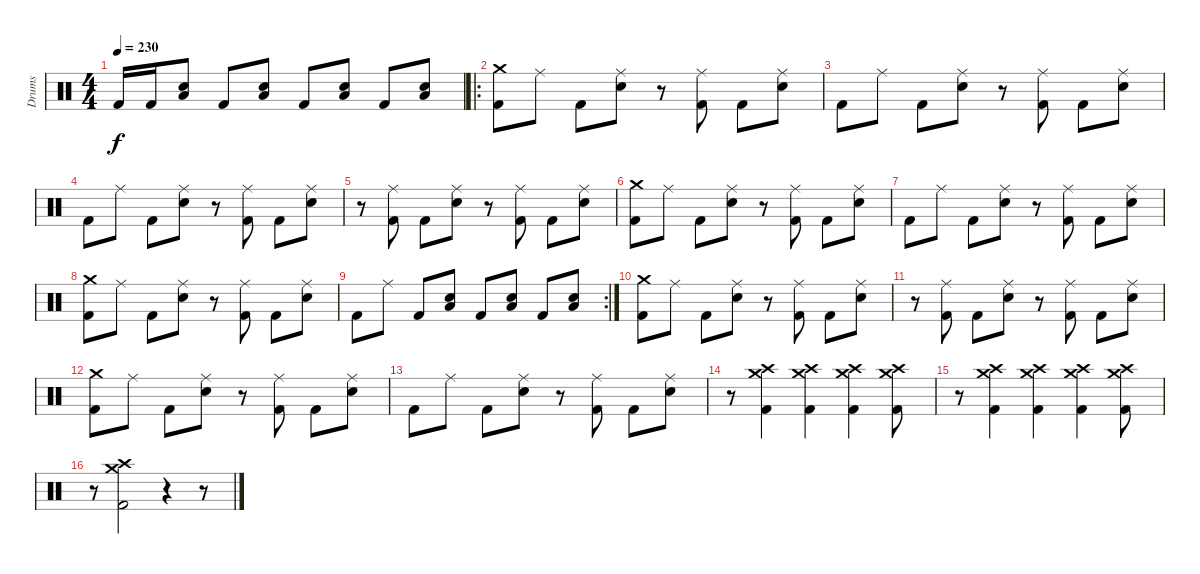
\track ("Drums" "Drums") {instrument percussion}
\staff {score}
\articulation defaults
\ts (4 4)
\tempo 230
\clef neutral
\ks c "Kick (hit) 2".16{dy f} "Kick (hit) 2".16
("Electric Snare (hit)" "Low Tom (hit)").8 "Kick (hit) 2".8 ("Electric Snare (hit)" "Low Tom (hit)").8 "Kick (hit) 2".8 ("Electric Snare (hit)" "Low Tom (hit)").8 "Kick (hit) 2".8 ("Electric Snare (hit)" "Low Tom (hit)").8 |
\ro
("Kick (hit) 2" "Crash medium (hit)").8 "Ride (middle)".8 "Kick (hit) 2".8 ("Electric Snare (hit)" "Ride (middle)").8 r.8 ("Kick (hit) 2" "Ride (middle)").8 "Kick (hit) 2".8 ("Electric Snare (hit)" "Ride (middle)").8 |
"Kick (hit) 2".8 "Ride (middle)".8 "Kick (hit) 2".8 ("Electric Snare (hit)" "Ride (middle)").8 r.8 ("Kick (hit) 2" "Ride (middle)").8 "Kick (hit) 2".8 ("Electric Snare (hit)" "Ride (middle)").8 |
"Kick (hit) 2".8 "Ride (middle)".8 "Kick (hit) 2".8 ("Electric Snare (hit)" "Ride (middle)").8 r.8 ("Kick (hit) 2" "Ride (middle)").8 "Kick (hit) 2".8 ("Electric Snare (hit)" "Ride (middle)").8 |
r.8 ("Kick (hit) 2" "Ride (middle)").8 "Kick (hit) 2".8 ("Electric Snare (hit)" "Ride (middle)").8 r.8 ("Kick (hit) 2" "Ride (middle)").8 "Kick (hit) 2".8 ("Electric Snare (hit)" "Ride (middle)").8 |
("Kick (hit) 2" "Crash medium (hit)").8 "Ride (middle)".8 "Kick (hit) 2".8 ("Electric Snare (hit)" "Ride (middle)").8 r.8 ("Kick (hit) 2" "Ride (middle)").8 "Kick (hit) 2".8 ("Electric Snare (hit)" "Ride (middle)").8 |
"Kick (hit) 2".8 "Ride (middle)".8 "Kick (hit) 2".8 ("Electric Snare (hit)" "Ride (middle)").8 r.8 ("Kick (hit) 2" "Ride (middle)").8 "Kick (hit) 2".8 ("Electric Snare (hit)" "Ride (middle)").8 |
("Kick (hit) 2" "Crash medium (hit)").8 "Ride (middle)".8 "Kick (hit) 2".8 ("Electric Snare (hit)" "Ride (middle)").8 r.8 ("Kick (hit) 2" "Ride (middle)").8 "Kick (hit) 2".8 ("Electric Snare (hit)" "Ride (middle)").8 |
\rc 2 "Kick (hit) 2".8 "Ride (middle)".8 "Kick (hit) 2".8
("Electric Snare (hit)" "Low Tom (hit)").8 "Kick (hit) 2".8 ("Electric Snare (hit)" "Low Tom (hit)").8 "Kick (hit) 2".8 ("Electric Snare (hit)" "Low Tom (hit)").8 |
("Kick (hit) 2" "Crash medium (hit)").8 "Ride (middle)".8 "Kick (hit) 2".8 ("Electric Snare (hit)" "Ride (middle)").8 r.8 ("Kick (hit) 2" "Ride (middle)").8 "Kick (hit) 2".8 ("Electric Snare (hit)" "Ride (middle)").8 |
r.8 ("Kick (hit) 2" "Ride (middle)").8 "Kick (hit) 2".8 ("Electric Snare (hit)" "Ride (middle)").8 r.8 ("Kick (hit) 2" "Ride (middle)").8 "Kick (hit) 2".8 ("Electric Snare (hit)" "Ride (middle)").8 |
("Kick (hit) 2" "Crash medium (hit)").8 "Ride (middle)".8 "Kick (hit) 2".8 ("Electric Snare (hit)" "Ride (middle)").8 r.8 ("Kick (hit) 2" "Ride (middle)").8 "Kick (hit) 2".8 ("Electric Snare (hit)" "Ride (middle)").8 |
"Kick (hit) 2".8 "Ride (middle)".8 "Kick (hit) 2".8 ("Electric Snare (hit)" "Ride (middle)").8 r.8 ("Kick (hit) 2" "Ride (middle)").8 "Kick (hit) 2".8 ("Electric Snare (hit)" "Ride (middle)").8 |
r.8 ("Kick (hit) 2" "Crash high (hit)" "Crash medium (hit)").4 ("Kick (hit) 2" "Crash high (hit)" "Crash medium (hit)").4 ("Kick (hit) 2" "Crash high (hit)" "Crash medium (hit)").4 ("Kick (hit) 2" "Crash high (hit)" "Crash medium (hit)").8 |
r.8 ("Kick (hit) 2" "Crash high (hit)" "Crash medium (hit)").4 ("Kick (hit) 2" "Crash high (hit)" "Crash medium (hit)").4 ("Kick (hit) 2" "Crash high (hit)" "Crash medium (hit)").4 ("Kick (hit) 2" "Crash high (hit)" "Crash medium (hit)").8 |
r.8 ("Kick (hit) 2" "Crash high (hit)" "Crash medium (hit)").2 r.4 r.8
